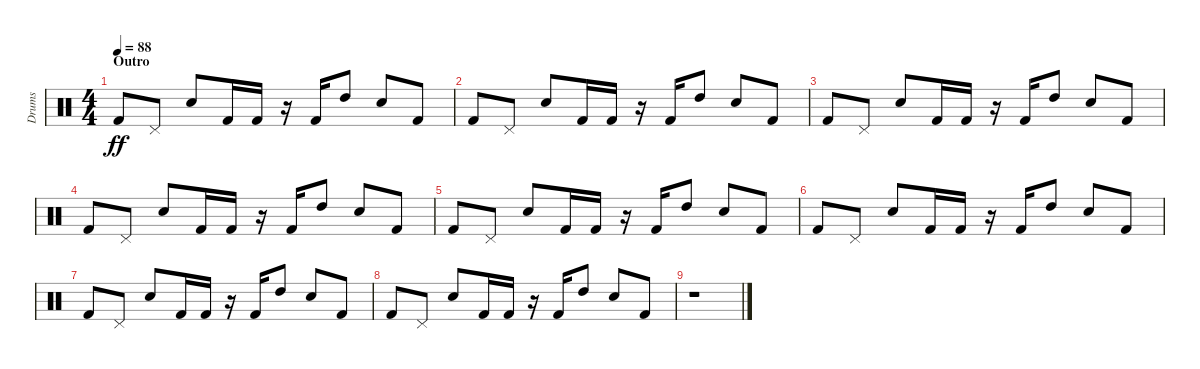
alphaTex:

\track ("Drums" "Drums") {solo instrument percussion}
\staff {score}
\articulation defaults
\ts (4 4)
\section ("" "Outro")
\tempo 88
\clef neutral
\ks aminor "Kick (hit) 2".8{dy ff} "Pedal Hi-Hat (hit)".8 "Snare (hit) 2".8 "Kick (hit) 2".16 "Kick (hit) 2".16
r.16 "Kick (hit) 2".16 "High Tom (hit)".8 "Snare (hit) 2".8 "Kick (hit) 2".8 |
"Kick (hit) 2".8 "Pedal Hi-Hat (hit)".8 "Snare (hit) 2".8 "Kick (hit) 2".16 "Kick (hit) 2".16 r.16 "Kick (hit) 2".16 "High Tom (hit)".8 "Snare (hit) 2".8 "Kick (hit) 2".8 |
"Kick (hit) 2".8 "Pedal Hi-Hat (hit)".8 "Snare (hit) 2".8 "Kick (hit) 2".16 "Kick (hit) 2".16 r.16 "Kick (hit) 2".16 "High Tom (hit)".8 "Snare (hit) 2".8 "Kick (hit) 2".8 |
"Kick (hit) 2".8 "Pedal Hi-Hat (hit)".8 "Snare (hit) 2".8 "Kick (hit) 2".16 "Kick (hit) 2".16 r.16 "Kick (hit) 2".16 "High Tom (hit)".8 "Snare (hit) 2".8 "Kick (hit) 2".8 |
"Kick (hit) 2".8 "Pedal Hi-Hat (hit)".8 "Snare (hit) 2".8 "Kick (hit) 2".16 "Kick (hit) 2".16 r.16 "Kick (hit) 2".16 "High Tom (hit)".8 "Snare (hit) 2".8 "Kick (hit) 2".8 |
"Kick (hit) 2".8 "Pedal Hi-Hat (hit)".8 "Snare (hit) 2".8 "Kick (hit) 2".16 "Kick (hit) 2".16 r.16 "Kick (hit) 2".16 "High Tom (hit)".8 "Snare (hit) 2".8 "Kick (hit) 2".8 |
"Kick (hit) 2".8 "Pedal Hi-Hat (hit)".8 "Snare (hit) 2".8 "Kick (hit) 2".16 "Kick (hit) 2".16 r.16 "Kick (hit) 2".16 "High Tom (hit)".8 "Snare (hit) 2".8 "Kick (hit) 2".8 |
"Kick (hit) 2".8 "Pedal Hi-Hat (hit)".8 "Snare (hit) 2".8 "Kick (hit) 2".16 "Kick (hit) 2".16 r.16 "Kick (hit) 2".16 "High Tom (hit)".8 "Snare (hit) 2".8 "Kick (hit) 2".8 |
r.1
